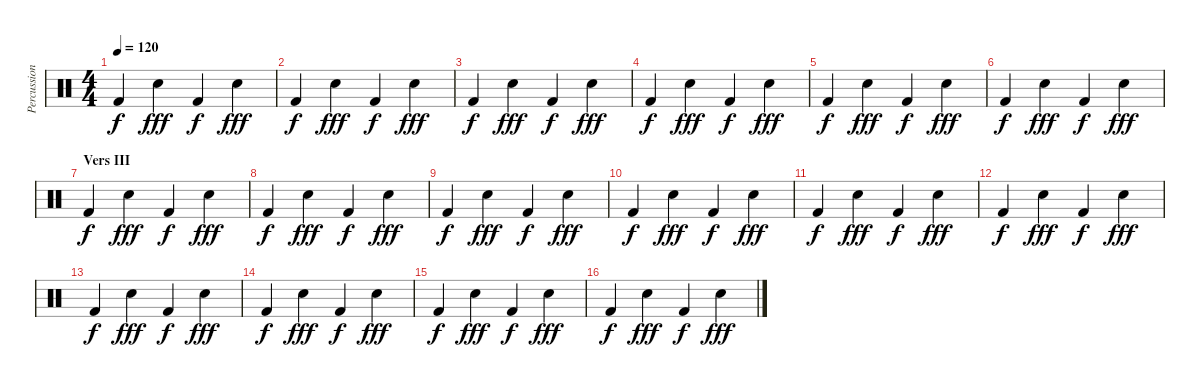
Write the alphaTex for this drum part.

\track ("Percussion" "Percussion") {instrument percussion}
\staff {score}
\articulation defaults
\ts (4 4)
\tempo 120
\clef neutral
\ks c "Kick (hit) 2".4{dy f} "Electric Snare (hit)".4{dy fff} "Kick (hit) 2".4{dy f} "Electric Snare (hit)".4{dy fff}
|
"Kick (hit) 2".4{dy f} "Electric Snare (hit)".4{dy fff} "Kick (hit) 2".4{dy f} "Electric Snare (hit)".4{dy fff} |
"Kick (hit) 2".4{dy f} "Electric Snare (hit)".4{dy fff} "Kick (hit) 2".4{dy f} "Electric Snare (hit)".4{dy fff} |
"Kick (hit) 2".4{dy f} "Electric Snare (hit)".4{dy fff} "Kick (hit) 2".4{dy f} "Electric Snare (hit)".4{dy fff} |
"Kick (hit) 2".4{dy f} "Electric Snare (hit)".4{dy fff} "Kick (hit) 2".4{dy f} "Electric Snare (hit)".4{dy fff} |
"Kick (hit) 2".4{dy f} "Electric Snare (hit)".4{dy fff} "Kick (hit) 2".4{dy f} "Electric Snare (hit)".4{dy fff} |
\section ("" "Vers III")
"Kick (hit) 2".4{dy f} "Electric Snare (hit)".4{dy fff} "Kick (hit) 2".4{dy f} "Electric Snare (hit)".4{dy fff} |
"Kick (hit) 2".4{dy f} "Electric Snare (hit)".4{dy fff} "Kick (hit) 2".4{dy f} "Electric Snare (hit)".4{dy fff} |
"Kick (hit) 2".4{dy f} "Electric Snare (hit)".4{dy fff} "Kick (hit) 2".4{dy f} "Electric Snare (hit)".4{dy fff} |
"Kick (hit) 2".4{dy f} "Electric Snare (hit)".4{dy fff} "Kick (hit) 2".4{dy f} "Electric Snare (hit)".4{dy fff} |
"Kick (hit) 2".4{dy f} "Electric Snare (hit)".4{dy fff} "Kick (hit) 2".4{dy f} "Electric Snare (hit)".4{dy fff} |
"Kick (hit) 2".4{dy f} "Electric Snare (hit)".4{dy fff} "Kick (hit) 2".4{dy f} "Electric Snare (hit)".4{dy fff} |
"Kick (hit) 2".4{dy f} "Electric Snare (hit)".4{dy fff} "Kick (hit) 2".4{dy f} "Electric Snare (hit)".4{dy fff} |
"Kick (hit) 2".4{dy f} "Electric Snare (hit)".4{dy fff} "Kick (hit) 2".4{dy f} "Electric Snare (hit)".4{dy fff} |
"Kick (hit) 2".4{dy f} "Electric Snare (hit)".4{dy fff} "Kick (hit) 2".4{dy f} "Electric Snare (hit)".4{dy fff} |
"Kick (hit) 2".4{dy f} "Electric Snare (hit)".4{dy fff} "Kick (hit) 2".4{dy f} "Electric Snare (hit)".4{dy fff}
